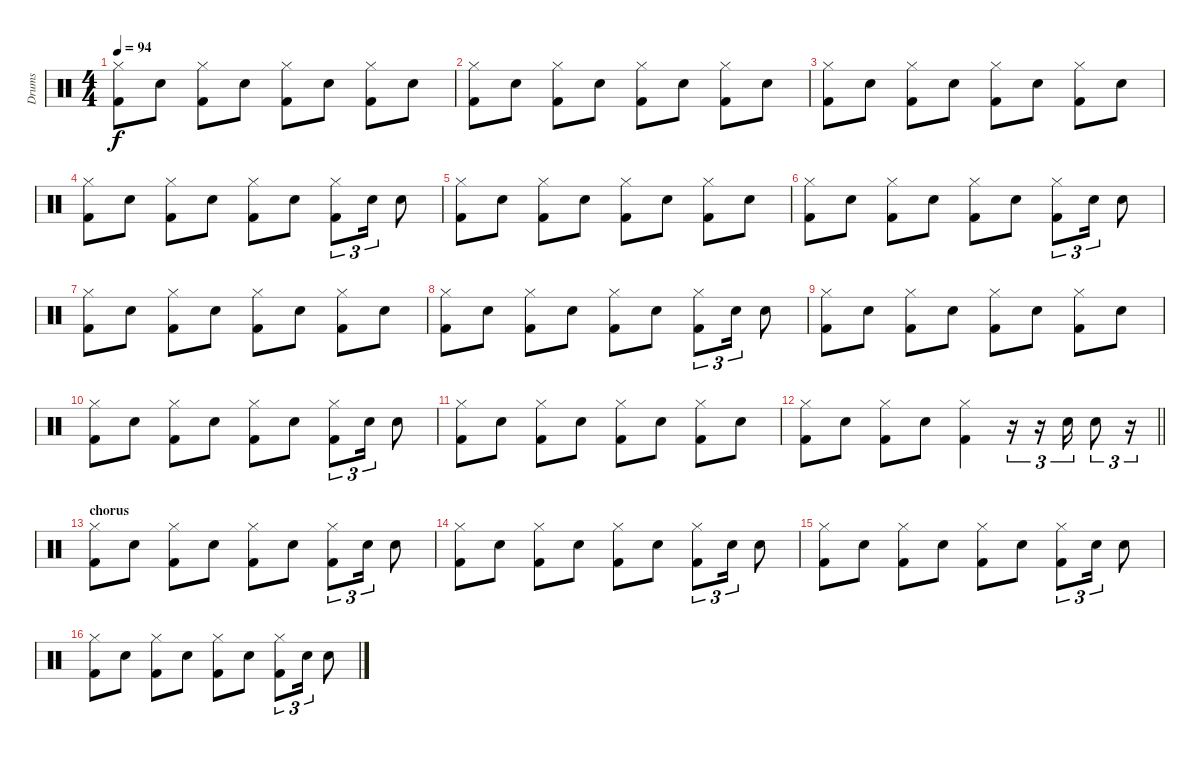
\track ("Drums" "Drums") {instrument percussion}
\staff {score}
\articulation defaults
\ts (4 4)
\tempo 94
\clef neutral
\ks c
("Hi-Hat (closed)" "Kick (hit) 2").8{dy f} "Electric Snare (hit)".8 ("Hi-Hat (closed)" "Kick (hit) 2").8 "Electric Snare (hit)".8 ("Hi-Hat (closed)" "Kick (hit) 2").8 "Electric Snare (hit)".8 ("Hi-Hat (closed)" "Kick (hit) 2").8 "Electric Snare (hit)".8 |
("Hi-Hat (closed)" "Kick (hit) 2").8 "Electric Snare (hit)".8 ("Hi-Hat (closed)" "Kick (hit) 2").8 "Electric Snare (hit)".8 ("Hi-Hat (closed)" "Kick (hit) 2").8 "Electric Snare (hit)".8 ("Hi-Hat (closed)" "Kick (hit) 2").8 "Electric Snare (hit)".8 |
("Hi-Hat (closed)" "Kick (hit) 2").8 "Electric Snare (hit)".8 ("Hi-Hat (closed)" "Kick (hit) 2").8 "Electric Snare (hit)".8 ("Hi-Hat (closed)" "Kick (hit) 2").8 "Electric Snare (hit)".8 ("Hi-Hat (closed)" "Kick (hit) 2").8 "Electric Snare (hit)".8 |
("Hi-Hat (closed)" "Kick (hit) 2").8 "Electric Snare (hit)".8 ("Hi-Hat (closed)" "Kick (hit) 2").8 "Electric Snare (hit)".8 ("Hi-Hat (closed)" "Kick (hit) 2").8 "Electric Snare (hit)".8 ("Hi-Hat (closed)" "Kick (hit) 2").8{tu (3 2)} "Electric Snare (hit)".16{tu (3 2)} "Electric Snare (hit)".8 |
("Hi-Hat (closed)" "Kick (hit) 2").8 "Electric Snare (hit)".8 ("Hi-Hat (closed)" "Kick (hit) 2").8 "Electric Snare (hit)".8 ("Hi-Hat (closed)" "Kick (hit) 2").8 "Electric Snare (hit)".8 ("Hi-Hat (closed)" "Kick (hit) 2").8 "Electric Snare (hit)".8 |
("Hi-Hat (closed)" "Kick (hit) 2").8 "Electric Snare (hit)".8 ("Hi-Hat (closed)" "Kick (hit) 2").8 "Electric Snare (hit)".8 ("Hi-Hat (closed)" "Kick (hit) 2").8 "Electric Snare (hit)".8 ("Hi-Hat (closed)" "Kick (hit) 2").8{tu (3 2)} "Electric Snare (hit)".16{tu (3 2)} "Electric Snare (hit)".8 |
("Hi-Hat (closed)" "Kick (hit) 2").8 "Electric Snare (hit)".8 ("Hi-Hat (closed)" "Kick (hit) 2").8 "Electric Snare (hit)".8 ("Hi-Hat (closed)" "Kick (hit) 2").8 "Electric Snare (hit)".8 ("Hi-Hat (closed)" "Kick (hit) 2").8 "Electric Snare (hit)".8 |
("Hi-Hat (closed)" "Kick (hit) 2").8 "Electric Snare (hit)".8 ("Hi-Hat (closed)" "Kick (hit) 2").8 "Electric Snare (hit)".8 ("Hi-Hat (closed)" "Kick (hit) 2").8 "Electric Snare (hit)".8 ("Hi-Hat (closed)" "Kick (hit) 2").8{tu (3 2)} "Electric Snare (hit)".16{tu (3 2)} "Electric Snare (hit)".8 |
("Hi-Hat (closed)" "Kick (hit) 2").8 "Electric Snare (hit)".8 ("Hi-Hat (closed)" "Kick (hit) 2").8 "Electric Snare (hit)".8 ("Hi-Hat (closed)" "Kick (hit) 2").8 "Electric Snare (hit)".8 ("Hi-Hat (closed)" "Kick (hit) 2").8 "Electric Snare (hit)".8 |
("Hi-Hat (closed)" "Kick (hit) 2").8 "Electric Snare (hit)".8 ("Hi-Hat (closed)" "Kick (hit) 2").8 "Electric Snare (hit)".8 ("Hi-Hat (closed)" "Kick (hit) 2").8 "Electric Snare (hit)".8 ("Hi-Hat (closed)" "Kick (hit) 2").8{tu (3 2)} "Electric Snare (hit)".16{tu (3 2)} "Electric Snare (hit)".8 |
("Hi-Hat (closed)" "Kick (hit) 2").8 "Electric Snare (hit)".8 ("Hi-Hat (closed)" "Kick (hit) 2").8 "Electric Snare (hit)".8 ("Hi-Hat (closed)" "Kick (hit) 2").8 "Electric Snare (hit)".8 ("Hi-Hat (closed)" "Kick (hit) 2").8 "Electric Snare (hit)".8 |
\barLineRight lightlight
("Hi-Hat (closed)" "Kick (hit) 2").8 "Electric Snare (hit)".8 ("Hi-Hat (closed)" "Kick (hit) 2").8 "Electric Snare (hit)".8 ("Hi-Hat (closed)" "Kick (hit) 2").4 r.16{tu (3 2)} r.16{tu (3 2)} "Electric Snare (hit)".16{tu (3 2)} "Electric Snare (hit)".8{tu (3 2)} r.16{tu (3 2)} |
\section ("" "chorus")
("Hi-Hat (closed)" "Kick (hit) 2").8 "Electric Snare (hit)".8 ("Hi-Hat (closed)" "Kick (hit) 2").8 "Electric Snare (hit)".8 ("Hi-Hat (closed)" "Kick (hit) 2").8 "Electric Snare (hit)".8 ("Hi-Hat (closed)" "Kick (hit) 2").8{tu (3 2)} "Electric Snare (hit)".16{tu (3 2)} "Electric Snare (hit)".8 |
("Hi-Hat (closed)" "Kick (hit) 2").8 "Electric Snare (hit)".8 ("Hi-Hat (closed)" "Kick (hit) 2").8 "Electric Snare (hit)".8 ("Hi-Hat (closed)" "Kick (hit) 2").8 "Electric Snare (hit)".8 ("Hi-Hat (closed)" "Kick (hit) 2").8{tu (3 2)} "Electric Snare (hit)".16{tu (3 2)} "Electric Snare (hit)".8 |
("Hi-Hat (closed)" "Kick (hit) 2").8 "Electric Snare (hit)".8 ("Hi-Hat (closed)" "Kick (hit) 2").8 "Electric Snare (hit)".8 ("Hi-Hat (closed)" "Kick (hit) 2").8 "Electric Snare (hit)".8 ("Hi-Hat (closed)" "Kick (hit) 2").8{tu (3 2)} "Electric Snare (hit)".16{tu (3 2)} "Electric Snare (hit)".8 |
("Hi-Hat (closed)" "Kick (hit) 2").8 "Electric Snare (hit)".8 ("Hi-Hat (closed)" "Kick (hit) 2").8 "Electric Snare (hit)".8 ("Hi-Hat (closed)" "Kick (hit) 2").8 "Electric Snare (hit)".8 ("Hi-Hat (closed)" "Kick (hit) 2").8{tu (3 2)} "Electric Snare (hit)".16{tu (3 2)} "Electric Snare (hit)".8
